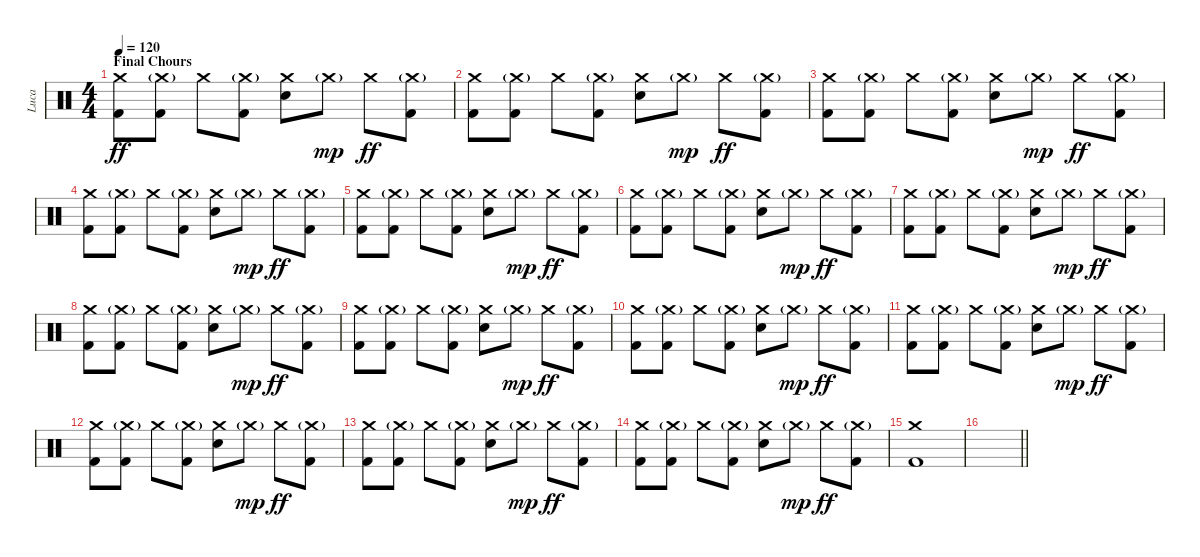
\track ("Luca" "Luca") {instrument percussion}
\staff {score}
\articulation defaults
\ts (4 4)
\section ("" "Final Chours")
\tempo 120
\clef neutral
\ks c
("Crash medium (hit)" "Kick (hit) 2").8{dy ff} ("Crash medium (hit)"{g} "Kick (hit) 2").8 "Crash medium (hit)".8 ("Crash medium (hit)"{g} "Kick (hit) 2").8 ("Crash medium (hit)" "Snare (hit) 2").8 "Crash medium (hit)"{g}.8{dy mp} "Crash medium (hit)".8{dy ff} ("Crash medium (hit)"{g} "Kick (hit) 2").8 |
("Crash medium (hit)" "Kick (hit) 2").8 ("Crash medium (hit)"{g} "Kick (hit) 2").8 "Crash medium (hit)".8 ("Crash medium (hit)"{g} "Kick (hit) 2").8 ("Crash medium (hit)" "Snare (hit) 2").8 "Crash medium (hit)"{g}.8{dy mp} "Crash medium (hit)".8{dy ff} ("Crash medium (hit)"{g} "Kick (hit) 2").8 |
("Crash medium (hit)" "Kick (hit) 2").8 ("Crash medium (hit)"{g} "Kick (hit) 2").8 "Crash medium (hit)".8 ("Crash medium (hit)"{g} "Kick (hit) 2").8 ("Crash medium (hit)" "Snare (hit) 2").8 "Crash medium (hit)"{g}.8{dy mp} "Crash medium (hit)".8{dy ff} ("Crash medium (hit)"{g} "Kick (hit) 2").8 |
("Crash medium (hit)" "Kick (hit) 2").8 ("Crash medium (hit)"{g} "Kick (hit) 2").8 "Crash medium (hit)".8 ("Crash medium (hit)"{g} "Kick (hit) 2").8 ("Crash medium (hit)" "Snare (hit) 2").8 "Crash medium (hit)"{g}.8{dy mp} "Crash medium (hit)".8{dy ff} ("Crash medium (hit)"{g} "Kick (hit) 2").8 |
("Crash medium (hit)" "Kick (hit) 2").8 ("Crash medium (hit)"{g} "Kick (hit) 2").8 "Crash medium (hit)".8 ("Crash medium (hit)"{g} "Kick (hit) 2").8 ("Crash medium (hit)" "Snare (hit) 2").8 "Crash medium (hit)"{g}.8{dy mp} "Crash medium (hit)".8{dy ff} ("Crash medium (hit)"{g} "Kick (hit) 2").8 |
("Crash medium (hit)" "Kick (hit) 2").8 ("Crash medium (hit)"{g} "Kick (hit) 2").8 "Crash medium (hit)".8 ("Crash medium (hit)"{g} "Kick (hit) 2").8 ("Crash medium (hit)" "Snare (hit) 2").8 "Crash medium (hit)"{g}.8{dy mp} "Crash medium (hit)".8{dy ff} ("Crash medium (hit)"{g} "Kick (hit) 2").8 |
("Crash medium (hit)" "Kick (hit) 2").8 ("Crash medium (hit)"{g} "Kick (hit) 2").8 "Crash medium (hit)".8 ("Crash medium (hit)"{g} "Kick (hit) 2").8 ("Crash medium (hit)" "Snare (hit) 2").8 "Crash medium (hit)"{g}.8{dy mp} "Crash medium (hit)".8{dy ff} ("Crash medium (hit)"{g} "Kick (hit) 2").8 |
("Crash medium (hit)" "Kick (hit) 2").8 ("Crash medium (hit)"{g} "Kick (hit) 2").8 "Crash medium (hit)".8 ("Crash medium (hit)"{g} "Kick (hit) 2").8 ("Crash medium (hit)" "Snare (hit) 2").8 "Crash medium (hit)"{g}.8{dy mp} "Crash medium (hit)".8{dy ff} ("Crash medium (hit)"{g} "Kick (hit) 2").8 |
("Crash medium (hit)" "Kick (hit) 2").8 ("Crash medium (hit)"{g} "Kick (hit) 2").8 "Crash medium (hit)".8 ("Crash medium (hit)"{g} "Kick (hit) 2").8 ("Crash medium (hit)" "Snare (hit) 2").8 "Crash medium (hit)"{g}.8{dy mp} "Crash medium (hit)".8{dy ff} ("Crash medium (hit)"{g} "Kick (hit) 2").8 |
("Crash medium (hit)" "Kick (hit) 2").8 ("Crash medium (hit)"{g} "Kick (hit) 2").8 "Crash medium (hit)".8 ("Crash medium (hit)"{g} "Kick (hit) 2").8 ("Crash medium (hit)" "Snare (hit) 2").8 "Crash medium (hit)"{g}.8{dy mp} "Crash medium (hit)".8{dy ff} ("Crash medium (hit)"{g} "Kick (hit) 2").8 |
("Crash medium (hit)" "Kick (hit) 2").8 ("Crash medium (hit)"{g} "Kick (hit) 2").8 "Crash medium (hit)".8 ("Crash medium (hit)"{g} "Kick (hit) 2").8 ("Crash medium (hit)" "Snare (hit) 2").8 "Crash medium (hit)"{g}.8{dy mp} "Crash medium (hit)".8{dy ff} ("Crash medium (hit)"{g} "Kick (hit) 2").8 |
("Crash medium (hit)" "Kick (hit) 2").8 ("Crash medium (hit)"{g} "Kick (hit) 2").8 "Crash medium (hit)".8 ("Crash medium (hit)"{g} "Kick (hit) 2").8 ("Crash medium (hit)" "Snare (hit) 2").8 "Crash medium (hit)"{g}.8{dy mp} "Crash medium (hit)".8{dy ff} ("Crash medium (hit)"{g} "Kick (hit) 2").8 |
("Crash medium (hit)" "Kick (hit) 2").8 ("Crash medium (hit)"{g} "Kick (hit) 2").8 "Crash medium (hit)".8 ("Crash medium (hit)"{g} "Kick (hit) 2").8 ("Crash medium (hit)" "Snare (hit) 2").8 "Crash medium (hit)"{g}.8{dy mp} "Crash medium (hit)".8{dy ff} ("Crash medium (hit)"{g} "Kick (hit) 2").8 |
("Crash medium (hit)" "Kick (hit) 2").8 ("Crash medium (hit)"{g} "Kick (hit) 2").8 "Crash medium (hit)".8 ("Crash medium (hit)"{g} "Kick (hit) 2").8 ("Crash medium (hit)" "Snare (hit) 2").8 "Crash medium (hit)"{g}.8{dy mp} "Crash medium (hit)".8{dy ff} ("Crash medium (hit)"{g} "Kick (hit) 2").8 |
("Crash medium (hit)" "Kick (hit) 2").1 |
\barLineRight lightlight
